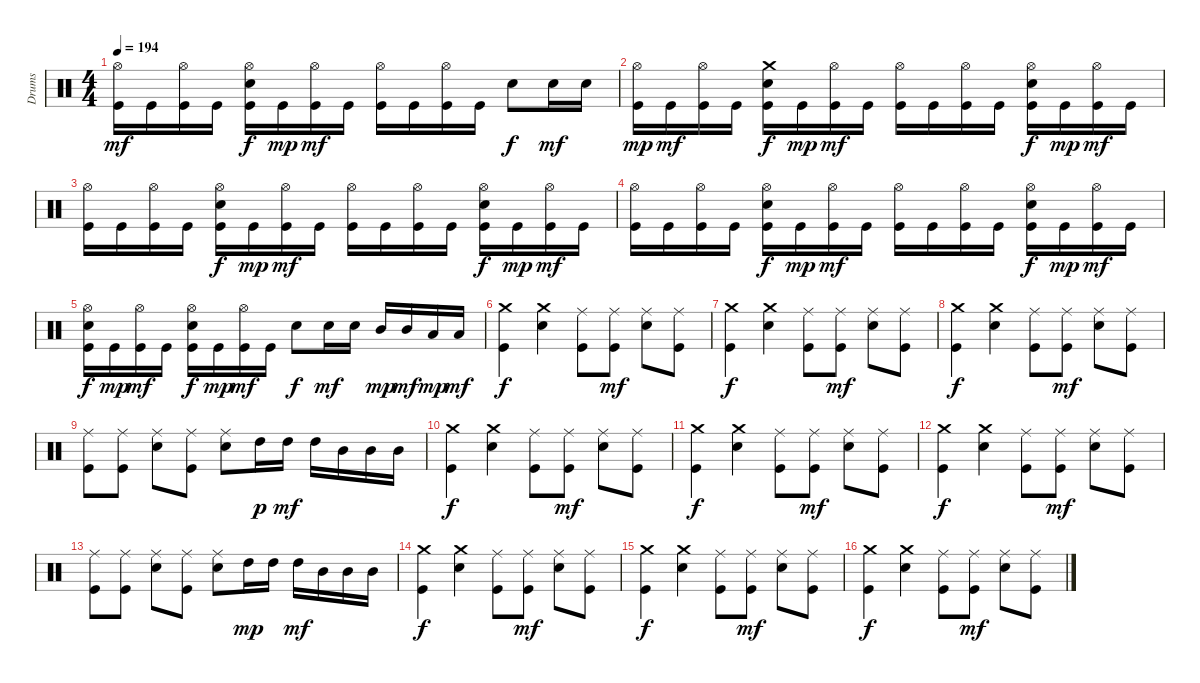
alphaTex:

\track ("Drums" "Drums") {instrument percussion}
\staff {score}
\articulation defaults
\ts (4 4)
\tempo 194
\clef neutral
\ks c
("Hi-Hat (open)" "Kick (hit)").16{dy mf} "Kick (hit)".16 ("Hi-Hat (open)" "Kick (hit)").16 "Kick (hit)".16 ("Hi-Hat (open)" "Kick (hit)" "Snare (hit) 2").16{dy f} "Kick (hit)".16{dy mp} ("Hi-Hat (open)" "Kick (hit)").16{dy mf} "Kick (hit)".16 ("Hi-Hat (open)" "Kick (hit)").16 "Kick (hit)".16 ("Hi-Hat (open)" "Kick (hit)").16 "Kick (hit)".16 "Snare (hit) 2".8{dy f} "Snare (hit) 2".16{dy mf} "Snare (hit) 2".16 |
("Hi-Hat (open)" "Kick (hit)").16{dy mp} "Kick (hit)".16{dy mf} ("Hi-Hat (open)" "Kick (hit)").16 "Kick (hit)".16 ("Crash medium (hit)" "Kick (hit)" "Snare (hit) 2").16{dy f} "Kick (hit)".16{dy mp} ("Hi-Hat (open)" "Kick (hit)").16{dy mf} "Kick (hit)".16 ("Hi-Hat (open)" "Kick (hit)").16 "Kick (hit)".16 ("Hi-Hat (open)" "Kick (hit)").16 "Kick (hit)".16 ("Hi-Hat (open)" "Kick (hit)" "Snare (hit) 2").16{dy f} "Kick (hit)".16{dy mp} ("Hi-Hat (open)" "Kick (hit)").16{dy mf} "Kick (hit)".16 |
("Hi-Hat (open)" "Kick (hit)").16 "Kick (hit)".16 ("Hi-Hat (open)" "Kick (hit)").16 "Kick (hit)".16 ("Hi-Hat (open)" "Kick (hit)" "Snare (hit) 2").16{dy f} "Kick (hit)".16{dy mp} ("Hi-Hat (open)" "Kick (hit)").16{dy mf} "Kick (hit)".16 ("Hi-Hat (open)" "Kick (hit)").16 "Kick (hit)".16 ("Hi-Hat (open)" "Kick (hit)").16 "Kick (hit)".16 ("Hi-Hat (open)" "Kick (hit)" "Snare (hit) 2").16{dy f} "Kick (hit)".16{dy mp} ("Hi-Hat (open)" "Kick (hit)").16{dy mf} "Kick (hit)".16 |
("Hi-Hat (open)" "Kick (hit)").16 "Kick (hit)".16 ("Hi-Hat (open)" "Kick (hit)").16 "Kick (hit)".16 ("Hi-Hat (open)" "Kick (hit)" "Snare (hit) 2").16{dy f} "Kick (hit)".16{dy mp} ("Hi-Hat (open)" "Kick (hit)").16{dy mf} "Kick (hit)".16 ("Hi-Hat (open)" "Kick (hit)").16 "Kick (hit)".16 ("Hi-Hat (open)" "Kick (hit)").16 "Kick (hit)".16 ("Hi-Hat (open)" "Kick (hit)" "Snare (hit) 2").16{dy f} "Kick (hit)".16{dy mp} ("Hi-Hat (open)" "Kick (hit)").16{dy mf} "Kick (hit)".16 |
("Hi-Hat (open)" "Kick (hit)" "Snare (hit) 2").16{dy f} "Kick (hit)".16{dy mp} ("Hi-Hat (open)" "Kick (hit)").16{dy mf} "Kick (hit)".16 ("Hi-Hat (open)" "Kick (hit)" "Snare (hit) 2").16{dy f} "Kick (hit)".16{dy mp} ("Hi-Hat (open)" "Kick (hit)").16{dy mf} "Kick (hit)".16 "Snare (hit) 2".8{dy f} "Snare (hit) 2".16{dy mf} "Snare (hit) 2".16 "Mid Tom (hit)".16{dy mp} "Mid Tom (hit)".16{dy mf} "Low Tom (hit)".16{dy mp} "Low Tom (hit)".16{dy mf} |
("Crash medium (hit)" "Kick (hit)").4{dy f} ("Crash medium (hit)" "Snare (hit) 2").4 ("Kick (hit)" "Ride (middle)").8 ("Kick (hit)" "Ride (middle)").8{dy mf} ("Snare (hit) 2" "Ride (middle)").8 ("Kick (hit)" "Ride (middle)").8 |
("Crash medium (hit)" "Kick (hit)").4{dy f} ("Crash medium (hit)" "Snare (hit) 2").4 ("Kick (hit)" "Ride (middle)").8 ("Kick (hit)" "Ride (middle)").8{dy mf} ("Snare (hit) 2" "Ride (middle)").8 ("Kick (hit)" "Ride (middle)").8 |
("Crash medium (hit)" "Kick (hit)").4{dy f} ("Crash medium (hit)" "Snare (hit) 2").4 ("Kick (hit)" "Ride (middle)").8 ("Kick (hit)" "Ride (middle)").8{dy mf} ("Snare (hit) 2" "Ride (middle)").8 ("Kick (hit)" "Ride (middle)").8 |
("Kick (hit)" "Ride (middle)").8 ("Kick (hit)" "Ride (middle)").8 ("Snare (hit) 2" "Ride (middle)").8 ("Kick (hit)" "Ride (middle)").8 ("Snare (hit) 2" "Ride (middle)").8 "High Tom (hit)".16{dy p} "High Tom (hit)".16{dy mf} "High Tom (hit)".16 "Mid Tom (hit)".16 "Mid Tom (hit)".16 "Mid Tom (hit)".16 |
("Crash medium (hit)" "Kick (hit)").4{dy f} ("Crash medium (hit)" "Snare (hit) 2").4 ("Kick (hit)" "Ride (middle)").8 ("Kick (hit)" "Ride (middle)").8{dy mf} ("Snare (hit) 2" "Ride (middle)").8 ("Kick (hit)" "Ride (middle)").8 |
("Crash medium (hit)" "Kick (hit)").4{dy f} ("Crash medium (hit)" "Snare (hit) 2").4 ("Kick (hit)" "Ride (middle)").8 ("Kick (hit)" "Ride (middle)").8{dy mf} ("Snare (hit) 2" "Ride (middle)").8 ("Kick (hit)" "Ride (middle)").8 |
("Crash medium (hit)" "Kick (hit)").4{dy f} ("Crash medium (hit)" "Snare (hit) 2").4 ("Kick (hit)" "Ride (middle)").8 ("Kick (hit)" "Ride (middle)").8{dy mf} ("Snare (hit) 2" "Ride (middle)").8 ("Kick (hit)" "Ride (middle)").8 |
("Kick (hit)" "Ride (middle)").8 ("Kick (hit)" "Ride (middle)").8 ("Snare (hit) 2" "Ride (middle)").8 ("Kick (hit)" "Ride (middle)").8 ("Snare (hit) 2" "Ride (middle)").8 "High Tom (hit)".16{dy mp} "High Tom (hit)".16 "High Tom (hit)".16{dy mf} "Mid Tom (hit)".16 "Mid Tom (hit)".16 "Mid Tom (hit)".16 |
("Crash medium (hit)" "Kick (hit)").4{dy f} ("Crash medium (hit)" "Snare (hit) 2").4 ("Kick (hit)" "Ride (middle)").8 ("Kick (hit)" "Ride (middle)").8{dy mf} ("Snare (hit) 2" "Ride (middle)").8 ("Kick (hit)" "Ride (middle)").8 |
("Crash medium (hit)" "Kick (hit)").4{dy f} ("Crash medium (hit)" "Snare (hit) 2").4 ("Kick (hit)" "Ride (middle)").8 ("Kick (hit)" "Ride (middle)").8{dy mf} ("Snare (hit) 2" "Ride (middle)").8 ("Kick (hit)" "Ride (middle)").8 |
("Crash medium (hit)" "Kick (hit)").4{dy f} ("Crash medium (hit)" "Snare (hit) 2").4 ("Kick (hit)" "Ride (middle)").8 ("Kick (hit)" "Ride (middle)").8{dy mf} ("Snare (hit) 2" "Ride (middle)").8 ("Kick (hit)" "Ride (middle)").8
